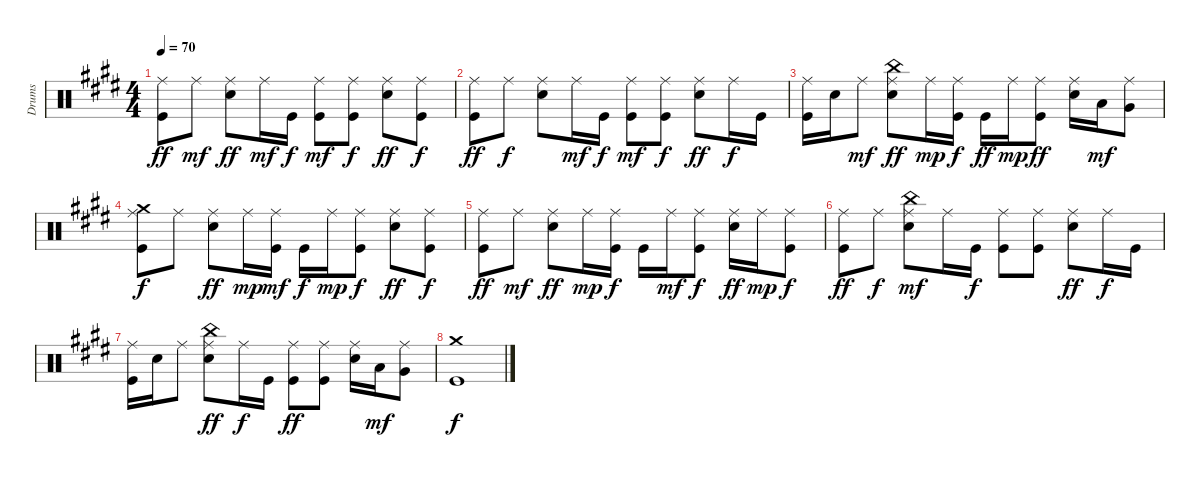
\track ("Drums" "Drums") {instrument percussion}
\staff {score}
\articulation defaults
\ts (4 4)
\tempo 70
\clef neutral
\ks e
("Kick (hit)" "Ride (middle)").8{dy ff} "Ride (middle)".8{dy mf} ("Snare (hit) 2" "Ride (middle)").8{dy ff} "Ride (middle)".16{dy mf} "Kick (hit)".16{dy f} ("Kick (hit)" "Ride (middle)").8{dy mf} ("Kick (hit)" "Ride (middle)").8{dy f} ("Snare (hit) 2" "Ride (middle)").8{dy ff} ("Kick (hit)" "Ride (middle)").8{dy f} |
("Kick (hit)" "Ride (middle)").8{dy ff} "Ride (middle)".8{dy f} ("Snare (hit) 2" "Ride (middle)").8 "Ride (middle)".16{dy mf} "Kick (hit)".16{dy f} ("Kick (hit)" "Ride (middle)").8{dy mf} ("Kick (hit)" "Ride (middle)").8{dy f} ("Snare (hit) 2" "Ride (middle)").8{dy ff} "Ride (middle)".16{dy f} "Kick (hit)".16 |
("Kick (hit)" "Ride (middle)").16 "Snare (hit) 2".16 "Ride (middle)".8{dy mf} ("Snare (hit) 2" "Ride (middle)" "China (hit)").8{dy ff} "Ride (middle)".16{dy mp} ("Kick (hit)" "Ride (middle)").16{dy f} "Kick (hit)".16{dy ff} "Ride (middle)".16{dy mp} ("Kick (hit)" "Ride (middle)").8{dy ff} ("Snare (hit) 2" "Ride (middle)").16 "Low Tom (hit)".16{dy mf} ("Very Low Tom (hit)" "Ride (middle)").8 |
("Kick (hit)" "Ride (middle)" "Crash medium (hit)").8{dy f} "Ride (middle)".8 ("Snare (hit) 2" "Ride (middle)").8{dy ff} "Ride (middle)".16{dy mp} ("Kick (hit)" "Ride (middle)").16{dy mf} "Kick (hit)".16{dy f} "Ride (middle)".16{dy mp} ("Kick (hit)" "Ride (middle)").8{dy f} ("Snare (hit) 2" "Ride (middle)").8{dy ff} ("Kick (hit)" "Ride (middle)").8{dy f} |
("Kick (hit)" "Ride (middle)").8{dy ff} "Ride (middle)".8{dy mf} ("Snare (hit) 2" "Ride (middle)").8{dy ff} "Ride (middle)".16{dy mp} ("Kick (hit)" "Ride (middle)").16{dy f} "Kick (hit)".16 "Ride (middle)".16{dy mf} ("Kick (hit)" "Ride (middle)").8{dy f} ("Snare (hit) 2" "Ride (middle)").16{dy ff} "Ride (middle)".16{dy mp} ("Kick (hit)" "Ride (middle)").8{dy f} |
("Kick (hit)" "Ride (middle)").8{dy ff} "Ride (middle)".8{dy f} ("Snare (hit) 2" "Ride (middle)" "China (hit)").8{dy mf} "Ride (middle)".16 "Kick (hit)".16{dy f} ("Kick (hit)" "Ride (middle)").8 ("Kick (hit)" "Ride (middle)").8 ("Snare (hit) 2" "Ride (middle)").8{dy ff} "Ride (middle)".16{dy f} "Kick (hit)".16 |
("Kick (hit)" "Ride (middle)").16 "Snare (hit) 2".16 "Ride (middle)".8 ("Snare (hit) 2" "Ride (middle)" "China (hit)").8{dy ff} "Ride (middle)".16{dy f} "Kick (hit)".16 ("Kick (hit)" "Ride (middle)").8{dy ff} ("Kick (hit)" "Ride (middle)").8 ("Snare (hit) 2" "Ride (middle)").16 "Low Tom (hit)".16{dy mf} ("Very Low Tom (hit)" "Ride (middle)").8 |
("Kick (hit)" "Crash medium (hit)").1{dy f}
